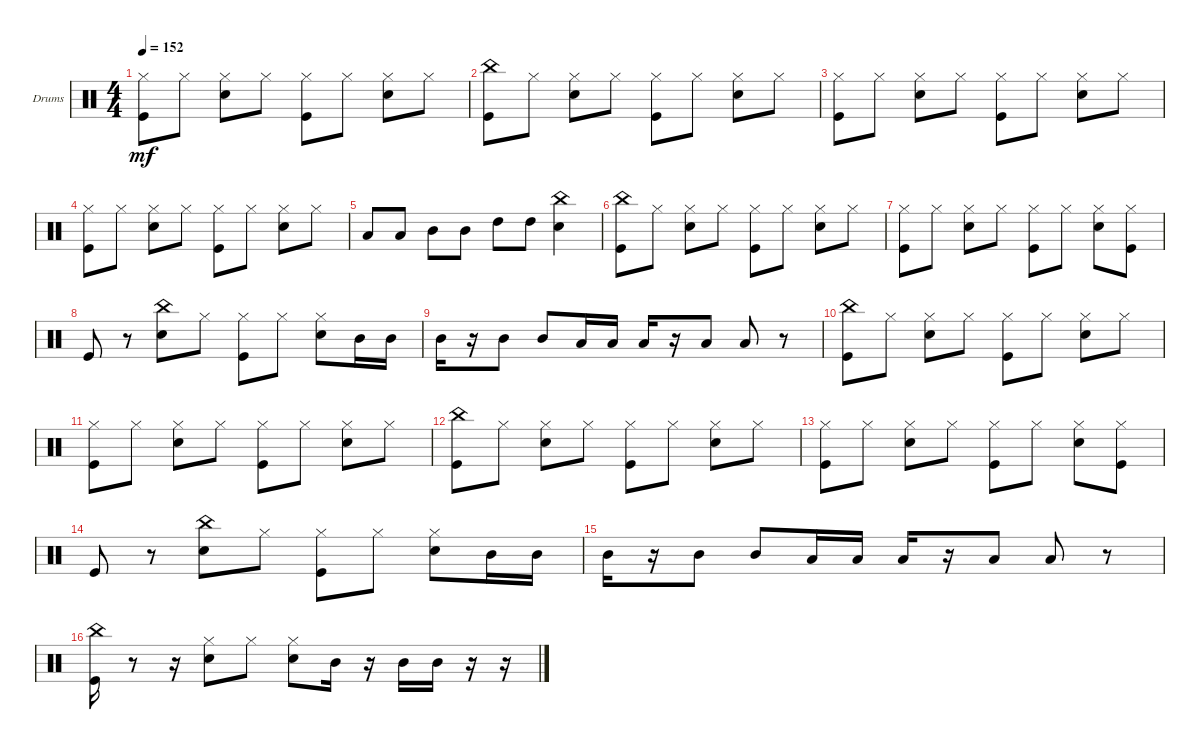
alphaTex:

\defaultSystemsLayout 4
\bracketExtendMode groupsimilarinstruments
\firstSystemTrackNameOrientation horizontal
\otherSystemsTrackNameOrientation horizontal
\track ("Drumkit" "Drums") {instrument percussion}
\staff {score}
\articulation defaults
\ts (4 4)
\tempo 152
\clef neutral
\ks c
("Kick (hit)" "Hi-Hat (closed)").8{dy mf} "Hi-Hat (closed)".8 ("Snare (hit) 2" "Hi-Hat (closed)").8 "Hi-Hat (closed)".8 ("Hi-Hat (closed)" "Kick (hit)").8 "Hi-Hat (closed)".8 ("Hi-Hat (closed)" "Snare (hit) 2").8 "Hi-Hat (closed)".8 |
("Kick (hit)" "China (hit)").8 "Hi-Hat (closed)".8 ("Snare (hit) 2" "Hi-Hat (closed)").8 "Hi-Hat (closed)".8 ("Hi-Hat (closed)" "Kick (hit)").8 "Hi-Hat (closed)".8 ("Hi-Hat (closed)" "Snare (hit) 2").8 "Hi-Hat (closed)".8 |
("Kick (hit)" "Hi-Hat (closed)").8 "Hi-Hat (closed)".8 ("Snare (hit) 2" "Hi-Hat (closed)").8 "Hi-Hat (closed)".8 ("Hi-Hat (closed)" "Kick (hit)").8 "Hi-Hat (closed)".8 ("Hi-Hat (closed)" "Snare (hit) 2").8 "Hi-Hat (closed)".8 |
("Kick (hit)" "Hi-Hat (closed)").8 "Hi-Hat (closed)".8 ("Snare (hit) 2" "Hi-Hat (closed)").8 "Hi-Hat (closed)".8 ("Kick (hit)" "Hi-Hat (closed)").8 "Hi-Hat (closed)".8 ("Snare (hit) 2" "Hi-Hat (closed)").8 "Hi-Hat (closed)".8 |
"Low Tom (hit)".8 "Low Tom (hit)".8 "Mid Tom (hit)".8 "Mid Tom (hit)".8 "High Tom (hit)".8 "High Tom (hit)".8 ("Snare (hit) 2" "China (hit)").4 |
("Kick (hit)" "China (hit)").8 "Hi-Hat (closed)".8 ("Hi-Hat (closed)" "Snare (hit) 2").8 "Hi-Hat (closed)".8 ("Hi-Hat (closed)" "Kick (hit)").8 "Hi-Hat (closed)".8 ("Hi-Hat (closed)" "Snare (hit) 2").8 "Hi-Hat (closed)".8 |
("Kick (hit)" "Hi-Hat (closed)").8 "Hi-Hat (closed)".8 ("Snare (hit) 2" "Hi-Hat (closed)").8 "Hi-Hat (closed)".8 ("Hi-Hat (closed)" "Kick (hit)").8 "Hi-Hat (closed)".8 ("Hi-Hat (closed)" "Snare (hit) 2").8 ("Hi-Hat (closed)" "Kick (hit)").8 |
"Kick (hit)".8 r.8 ("Snare (hit) 2" "China (hit)").8 "Hi-Hat (closed)".8 ("Hi-Hat (closed)" "Kick (hit)").8 "Hi-Hat (closed)".8 ("Snare (hit) 2" "Hi-Hat (closed)").8 "Mid Tom (hit)".16 "Mid Tom (hit)".16 |
"Mid Tom (hit)".16 r.16 "Mid Tom (hit)".8 "Mid Tom (hit)".8 "Low Tom (hit)".16 "Low Tom (hit)".16 "Low Tom (hit)".16 r.16 "Low Tom (hit)".8 "Low Tom (hit)".8 r.8 |
("China (hit)" "Kick (hit)").8 "Hi-Hat (closed)".8 ("Snare (hit) 2" "Hi-Hat (closed)").8 "Hi-Hat (closed)".8 ("Kick (hit)" "Hi-Hat (closed)").8 "Hi-Hat (closed)".8 ("Snare (hit) 2" "Hi-Hat (closed)").8 "Hi-Hat (closed)".8 |
("Kick (hit)" "Hi-Hat (closed)").8 "Hi-Hat (closed)".8 ("Snare (hit) 2" "Hi-Hat (closed)").8 "Hi-Hat (closed)".8 ("Hi-Hat (closed)" "Kick (hit)").8 "Hi-Hat (closed)".8 ("Hi-Hat (closed)" "Snare (hit) 2").8 "Hi-Hat (closed)".8 |
("Kick (hit)" "China (hit)").8 "Hi-Hat (closed)".8 ("Hi-Hat (closed)" "Snare (hit) 2").8 "Hi-Hat (closed)".8 ("Hi-Hat (closed)" "Kick (hit)").8 "Hi-Hat (closed)".8 ("Hi-Hat (closed)" "Snare (hit) 2").8 "Hi-Hat (closed)".8 |
("Kick (hit)" "Hi-Hat (closed)").8 "Hi-Hat (closed)".8 ("Snare (hit) 2" "Hi-Hat (closed)").8 "Hi-Hat (closed)".8 ("Hi-Hat (closed)" "Kick (hit)").8 "Hi-Hat (closed)".8 ("Hi-Hat (closed)" "Snare (hit) 2").8 ("Hi-Hat (closed)" "Kick (hit)").8 |
"Kick (hit)".8 r.8 ("Snare (hit) 2" "China (hit)").8 "Hi-Hat (closed)".8 ("Hi-Hat (closed)" "Kick (hit)").8 "Hi-Hat (closed)".8 ("Snare (hit) 2" "Hi-Hat (closed)").8 "Mid Tom (hit)".16 "Mid Tom (hit)".16 |
"Mid Tom (hit)".16 r.16 "Mid Tom (hit)".8 "Mid Tom (hit)".8 "Low Tom (hit)".16 "Low Tom (hit)".16 "Low Tom (hit)".16 r.16 "Low Tom (hit)".8 "Low Tom (hit)".8 r.8 |
("Kick (hit)" "China (hit)").16 r.8 r.16 ("Snare (hit) 2" "Hi-Hat (closed)").8 "Hi-Hat (closed)".8 ("Hi-Hat (closed)" "Snare (hit) 2").8 "Mid Tom (hit)".16 r.16 "Mid Tom (hit)".16 "Mid Tom (hit)".16 r.16 r.16
